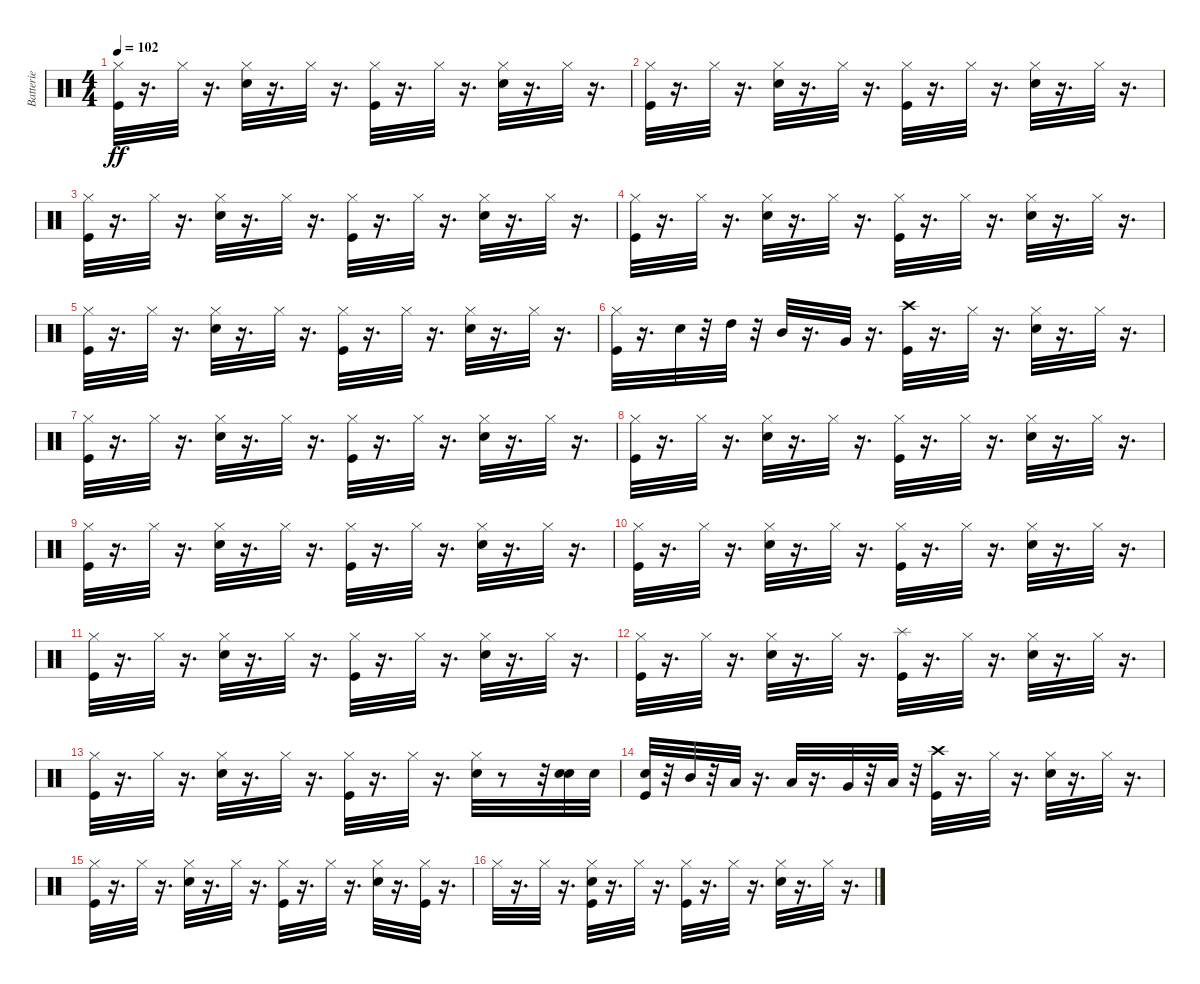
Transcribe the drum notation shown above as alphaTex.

\track ("Batterie" "Batterie") {instrument percussion}
\staff {score}
\articulation defaults
\ts (4 4)
\tempo 102
\clef neutral
\ks c
("Kick (hit)" "Hi-Hat (closed)").32{dy ff} r.16{d} "Hi-Hat (closed)".32 r.16{d} ("Hi-Hat (closed)" "Electric Snare (hit)").32 r.16{d} "Hi-Hat (closed)".32 r.16{d} ("Kick (hit)" "Hi-Hat (closed)").32 r.16{d} "Hi-Hat (closed)".32 r.16{d} ("Hi-Hat (closed)" "Electric Snare (hit)").32 r.16{d} "Hi-Hat (closed)".32 r.16{d} |
("Kick (hit)" "Hi-Hat (closed)").32 r.16{d} "Hi-Hat (closed)".32 r.16{d} ("Hi-Hat (closed)" "Electric Snare (hit)").32 r.16{d} "Hi-Hat (closed)".32 r.16{d} ("Kick (hit)" "Hi-Hat (closed)").32 r.16{d} "Hi-Hat (closed)".32 r.16{d} ("Hi-Hat (closed)" "Electric Snare (hit)").32 r.16{d} "Hi-Hat (closed)".32 r.16{d} |
("Kick (hit)" "Hi-Hat (closed)").32 r.16{d} "Hi-Hat (closed)".32 r.16{d} ("Hi-Hat (closed)" "Electric Snare (hit)").32 r.16{d} "Hi-Hat (closed)".32 r.16{d} ("Kick (hit)" "Hi-Hat (closed)").32 r.16{d} "Hi-Hat (closed)".32 r.16{d} ("Hi-Hat (closed)" "Electric Snare (hit)").32 r.16{d} "Hi-Hat (closed)".32 r.16{d} |
("Kick (hit)" "Hi-Hat (closed)").32 r.16{d} "Hi-Hat (closed)".32 r.16{d} ("Hi-Hat (closed)" "Electric Snare (hit)").32 r.16{d} "Hi-Hat (closed)".32 r.16{d} ("Kick (hit)" "Hi-Hat (closed)").32 r.16{d} "Hi-Hat (closed)".32 r.16{d} ("Hi-Hat (closed)" "Electric Snare (hit)").32 r.16{d} "Hi-Hat (closed)".32 r.16{d} |
("Kick (hit)" "Hi-Hat (closed)").32 r.16{d} "Hi-Hat (closed)".32 r.16{d} ("Hi-Hat (closed)" "Electric Snare (hit)").32 r.16{d} "Hi-Hat (closed)".32 r.16{d} ("Kick (hit)" "Hi-Hat (closed)").32 r.16{d} "Hi-Hat (closed)".32 r.16{d} ("Hi-Hat (closed)" "Electric Snare (hit)").32 r.16{d} "Hi-Hat (closed)".32 r.16{d} |
("Kick (hit)" "Hi-Hat (closed)").32 r.16{d} "Electric Snare (hit)".32 r.32 "High Tom (hit)".32 r.32 "Mid Tom (hit)".32 r.16{d} "Very Low Tom (hit)".32 r.16{d} ("Kick (hit)" "Crash high (hit)").32 r.16{d} "Hi-Hat (closed)".32 r.16{d} ("Hi-Hat (closed)" "Electric Snare (hit)").32 r.16{d} "Hi-Hat (closed)".32 r.16{d} |
("Kick (hit)" "Hi-Hat (closed)").32 r.16{d} "Hi-Hat (closed)".32 r.16{d} ("Hi-Hat (closed)" "Electric Snare (hit)").32 r.16{d} "Hi-Hat (closed)".32 r.16{d} ("Kick (hit)" "Hi-Hat (closed)").32 r.16{d} "Hi-Hat (closed)".32 r.16{d} ("Hi-Hat (closed)" "Electric Snare (hit)").32 r.16{d} "Hi-Hat (closed)".32 r.16{d} |
("Kick (hit)" "Hi-Hat (closed)").32 r.16{d} "Hi-Hat (closed)".32 r.16{d} ("Hi-Hat (closed)" "Electric Snare (hit)").32 r.16{d} "Hi-Hat (closed)".32 r.16{d} ("Kick (hit)" "Hi-Hat (closed)").32 r.16{d} "Hi-Hat (closed)".32 r.16{d} ("Hi-Hat (closed)" "Electric Snare (hit)").32 r.16{d} "Hi-Hat (closed)".32 r.16{d} |
("Kick (hit)" "Hi-Hat (closed)").32 r.16{d} "Hi-Hat (closed)".32 r.16{d} ("Hi-Hat (closed)" "Electric Snare (hit)").32 r.16{d} "Hi-Hat (closed)".32 r.16{d} ("Kick (hit)" "Hi-Hat (closed)").32 r.16{d} "Hi-Hat (closed)".32 r.16{d} ("Hi-Hat (closed)" "Electric Snare (hit)").32 r.16{d} "Hi-Hat (closed)".32 r.16{d} |
("Kick (hit)" "Hi-Hat (closed)").32 r.16{d} "Hi-Hat (closed)".32 r.16{d} ("Hi-Hat (closed)" "Electric Snare (hit)").32 r.16{d} "Hi-Hat (closed)".32 r.16{d} ("Kick (hit)" "Hi-Hat (closed)").32 r.16{d} "Hi-Hat (closed)".32 r.16{d} ("Hi-Hat (closed)" "Electric Snare (hit)").32 r.16{d} "Hi-Hat (closed)".32 r.16{d} |
("Kick (hit)" "Hi-Hat (closed)").32 r.16{d} "Hi-Hat (closed)".32 r.16{d} ("Hi-Hat (closed)" "Electric Snare (hit)").32 r.16{d} "Hi-Hat (closed)".32 r.16{d} ("Kick (hit)" "Hi-Hat (closed)").32 r.16{d} "Hi-Hat (closed)".32 r.16{d} ("Hi-Hat (closed)" "Electric Snare (hit)").32 r.16{d} "Hi-Hat (closed)".32 r.16{d} |
("Kick (hit)" "Hi-Hat (closed)").32 r.16{d} "Hi-Hat (closed)".32 r.16{d} ("Hi-Hat (closed)" "Electric Snare (hit)").32 r.16{d} "Hi-Hat (closed)".32 r.16{d} ("Kick (hit)" "Splash (hit)").32 r.16{d} "Hi-Hat (closed)".32 r.16{d} ("Hi-Hat (closed)" "Electric Snare (hit)").32 r.16{d} "Hi-Hat (closed)".32 r.16{d} |
("Kick (hit)" "Hi-Hat (closed)").32 r.16{d} "Hi-Hat (closed)".32 r.16{d} ("Hi-Hat (closed)" "Electric Snare (hit)").32 r.16{d} "Hi-Hat (closed)".32 r.16{d} ("Kick (hit)" "Hi-Hat (closed)").32 r.16{d} "Hi-Hat (closed)".32 r.16{d} ("Hi-Hat (closed)" "Electric Snare (hit)").32 r.8 r.32 ("Electric Snare (hit)" "Electric Snare (hit)").32 "Electric Snare (hit)".32 |
("Kick (hit)" "Electric Snare (hit)").32 r.32 "Mid Tom (hit)".32 r.32 "Low Tom (hit)".32 r.16{d} "Low Tom (hit)".32 r.16{d} "Very Low Tom (hit)".32 r.32 "Low Floor Tom (hit)".32 r.32 ("Kick (hit)" "Crash high (hit)").32 r.16{d} "Hi-Hat (closed)".32 r.16{d} ("Hi-Hat (closed)" "Electric Snare (hit)").32 r.16{d} "Hi-Hat (closed)".32 r.16{d} |
("Kick (hit)" "Hi-Hat (closed)").32 r.16{d} "Hi-Hat (closed)".32 r.16{d} ("Hi-Hat (closed)" "Electric Snare (hit)").32 r.16{d} "Hi-Hat (closed)".32 r.16{d} ("Kick (hit)" "Hi-Hat (closed)").32 r.16{d} "Hi-Hat (closed)".32 r.16{d} ("Hi-Hat (closed)" "Electric Snare (hit)").32 r.16{d} ("Kick (hit)" "Hi-Hat (closed)").32 r.16{d} |
"Hi-Hat (closed)".32 r.16{d} "Hi-Hat (closed)".32 r.16{d} ("Kick (hit)" "Hi-Hat (closed)" "Electric Snare (hit)").32 r.16{d} "Hi-Hat (closed)".32 r.16{d} ("Kick (hit)" "Hi-Hat (closed)").32 r.16{d} "Hi-Hat (closed)".32 r.16{d} ("Hi-Hat (closed)" "Electric Snare (hit)").32 r.16{d} "Hi-Hat (closed)".32 r.16{d}
